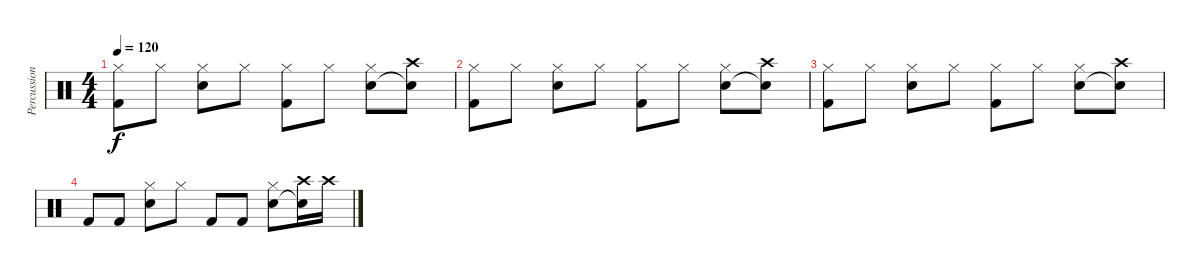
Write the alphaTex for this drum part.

\track ("Percussion" "Percussion") {instrument percussion}
\staff {score}
\articulation defaults
\ts (4 4)
\tempo 120
\clef neutral
\ks c
("Hi-Hat (closed)" "Kick (hit) 2").8{dy f} "Hi-Hat (closed)".8 ("Hi-Hat (closed)" "Electric Snare (hit)").8 "Hi-Hat (closed)".8 ("Hi-Hat (closed)" "Kick (hit) 2").8 "Hi-Hat (closed)".8 ("Hi-Hat (closed)" "Electric Snare (hit)").8 ("Crash high (hit)" "Electric Snare (hit)"{t}).8 |
("Hi-Hat (closed)" "Kick (hit) 2").8 "Hi-Hat (closed)".8 ("Hi-Hat (closed)" "Electric Snare (hit)").8 "Hi-Hat (closed)".8 ("Hi-Hat (closed)" "Kick (hit) 2").8 "Hi-Hat (closed)".8 ("Hi-Hat (closed)" "Electric Snare (hit)").8 ("Crash high (hit)" "Electric Snare (hit)"{t}).8 |
("Hi-Hat (closed)" "Kick (hit) 2").8 "Hi-Hat (closed)".8 ("Hi-Hat (closed)" "Electric Snare (hit)").8 "Hi-Hat (closed)".8 ("Hi-Hat (closed)" "Kick (hit) 2").8 "Hi-Hat (closed)".8 ("Hi-Hat (closed)" "Electric Snare (hit)").8 ("Crash high (hit)" "Electric Snare (hit)"{t}).8 |
"Kick (hit) 2".8 "Kick (hit) 2".8 ("Hi-Hat (closed)" "Electric Snare (hit)").8 "Hi-Hat (closed)".8 "Kick (hit) 2".8 "Kick (hit) 2".8 ("Hi-Hat (closed)" "Electric Snare (hit)").8 ("Crash high (hit)" "Electric Snare (hit)"{t}).16 "Crash high (hit)".16
